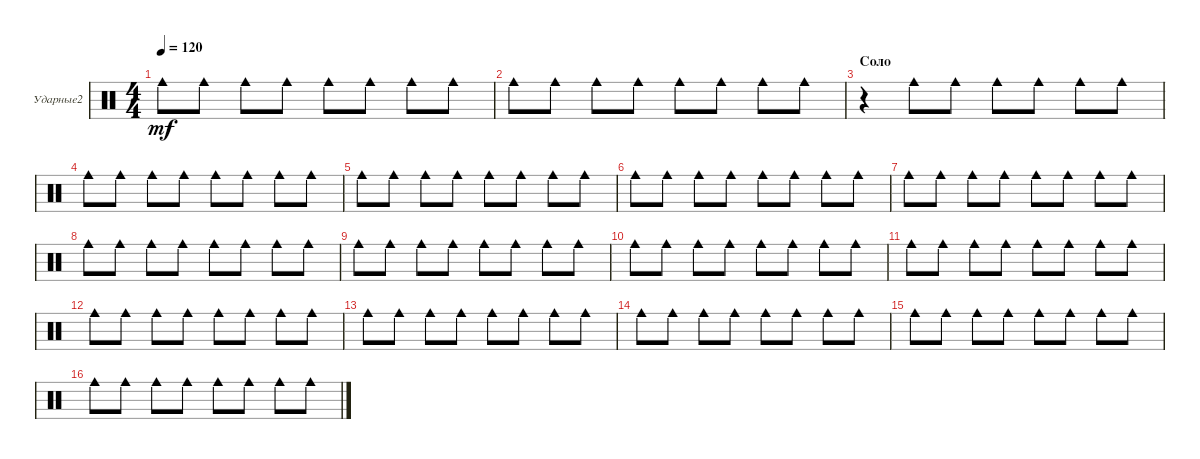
\defaultSystemsLayout 4
\bracketExtendMode groupsimilarinstruments
\firstSystemTrackNameOrientation horizontal
\otherSystemsTrackNameOrientation horizontal
\track ("Е.Кулаков" "Ударные2") {instrument percussion}
\staff {score}
\articulation defaults
\ts (4 4)
\tempo 120
\clef neutral
\ks c "Cowbell medium (hit)".8{dy mf} "Cowbell medium (hit)".8 "Cowbell medium (hit)".8 "Cowbell medium (hit)".8 "Cowbell medium (hit)".8 "Cowbell medium (hit)".8 "Cowbell medium (hit)".8 "Cowbell medium (hit)".8
|
"Cowbell medium (hit)".8 "Cowbell medium (hit)".8 "Cowbell medium (hit)".8 "Cowbell medium (hit)".8 "Cowbell medium (hit)".8 "Cowbell medium (hit)".8 "Cowbell medium (hit)".8 "Cowbell medium (hit)".8 |
\section ("" "Соло")
r.4 "Cowbell medium (hit)".8 "Cowbell medium (hit)".8 "Cowbell medium (hit)".8 "Cowbell medium (hit)".8 "Cowbell medium (hit)".8 "Cowbell medium (hit)".8 |
"Cowbell medium (hit)".8 "Cowbell medium (hit)".8 "Cowbell medium (hit)".8 "Cowbell medium (hit)".8 "Cowbell medium (hit)".8 "Cowbell medium (hit)".8 "Cowbell medium (hit)".8 "Cowbell medium (hit)".8 |
"Cowbell medium (hit)".8 "Cowbell medium (hit)".8 "Cowbell medium (hit)".8 "Cowbell medium (hit)".8 "Cowbell medium (hit)".8 "Cowbell medium (hit)".8 "Cowbell medium (hit)".8 "Cowbell medium (hit)".8 |
"Cowbell medium (hit)".8 "Cowbell medium (hit)".8 "Cowbell medium (hit)".8 "Cowbell medium (hit)".8 "Cowbell medium (hit)".8 "Cowbell medium (hit)".8 "Cowbell medium (hit)".8 "Cowbell medium (hit)".8 |
"Cowbell medium (hit)".8 "Cowbell medium (hit)".8 "Cowbell medium (hit)".8 "Cowbell medium (hit)".8 "Cowbell medium (hit)".8 "Cowbell medium (hit)".8 "Cowbell medium (hit)".8 "Cowbell medium (hit)".8 |
"Cowbell medium (hit)".8 "Cowbell medium (hit)".8 "Cowbell medium (hit)".8 "Cowbell medium (hit)".8 "Cowbell medium (hit)".8 "Cowbell medium (hit)".8 "Cowbell medium (hit)".8 "Cowbell medium (hit)".8 |
"Cowbell medium (hit)".8 "Cowbell medium (hit)".8 "Cowbell medium (hit)".8 "Cowbell medium (hit)".8 "Cowbell medium (hit)".8 "Cowbell medium (hit)".8 "Cowbell medium (hit)".8 "Cowbell medium (hit)".8 |
"Cowbell medium (hit)".8 "Cowbell medium (hit)".8 "Cowbell medium (hit)".8 "Cowbell medium (hit)".8 "Cowbell medium (hit)".8 "Cowbell medium (hit)".8 "Cowbell medium (hit)".8 "Cowbell medium (hit)".8 |
"Cowbell medium (hit)".8 "Cowbell medium (hit)".8 "Cowbell medium (hit)".8 "Cowbell medium (hit)".8 "Cowbell medium (hit)".8 "Cowbell medium (hit)".8 "Cowbell medium (hit)".8 "Cowbell medium (hit)".8 |
"Cowbell medium (hit)".8 "Cowbell medium (hit)".8 "Cowbell medium (hit)".8 "Cowbell medium (hit)".8 "Cowbell medium (hit)".8 "Cowbell medium (hit)".8 "Cowbell medium (hit)".8 "Cowbell medium (hit)".8 |
"Cowbell medium (hit)".8 "Cowbell medium (hit)".8 "Cowbell medium (hit)".8 "Cowbell medium (hit)".8 "Cowbell medium (hit)".8 "Cowbell medium (hit)".8 "Cowbell medium (hit)".8 "Cowbell medium (hit)".8 |
"Cowbell medium (hit)".8 "Cowbell medium (hit)".8 "Cowbell medium (hit)".8 "Cowbell medium (hit)".8 "Cowbell medium (hit)".8 "Cowbell medium (hit)".8 "Cowbell medium (hit)".8 "Cowbell medium (hit)".8 |
"Cowbell medium (hit)".8 "Cowbell medium (hit)".8 "Cowbell medium (hit)".8 "Cowbell medium (hit)".8 "Cowbell medium (hit)".8 "Cowbell medium (hit)".8 "Cowbell medium (hit)".8 "Cowbell medium (hit)".8 |
"Cowbell medium (hit)".8 "Cowbell medium (hit)".8 "Cowbell medium (hit)".8 "Cowbell medium (hit)".8 "Cowbell medium (hit)".8 "Cowbell medium (hit)".8 "Cowbell medium (hit)".8 "Cowbell medium (hit)".8
